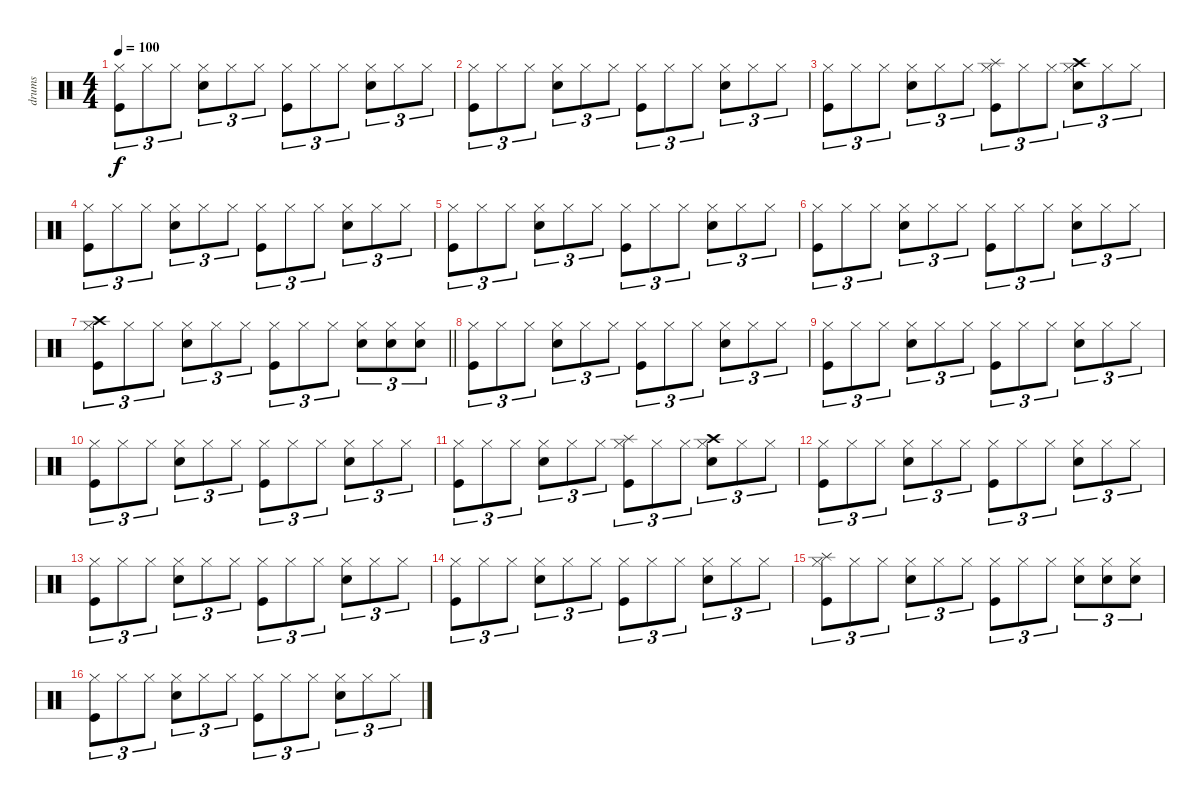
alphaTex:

\track ("drums" "drums") {instrument percussion}
\staff {score}
\articulation defaults
\ts (4 4)
\tempo 100
\clef neutral
\ks c
("Hi-Hat (closed)" "Kick (hit)").8{tu (3 2) dy f} "Hi-Hat (closed)".8{tu (3 2)} "Hi-Hat (closed)".8{tu (3 2)} ("Hi-Hat (closed)" "Snare (hit) 2").8{tu (3 2)} "Hi-Hat (closed)".8{tu (3 2)} "Hi-Hat (closed)".8{tu (3 2)} ("Hi-Hat (closed)" "Kick (hit)").8{tu (3 2)} "Hi-Hat (closed)".8{tu (3 2)} "Hi-Hat (closed)".8{tu (3 2)} ("Hi-Hat (closed)" "Snare (hit) 2").8{tu (3 2)} "Hi-Hat (closed)".8{tu (3 2)} "Hi-Hat (closed)".8{tu (3 2)} |
("Hi-Hat (closed)" "Kick (hit)").8{tu (3 2)} "Hi-Hat (closed)".8{tu (3 2)} "Hi-Hat (closed)".8{tu (3 2)} ("Hi-Hat (closed)" "Snare (hit) 2").8{tu (3 2)} "Hi-Hat (closed)".8{tu (3 2)} "Hi-Hat (closed)".8{tu (3 2)} ("Hi-Hat (closed)" "Kick (hit)").8{tu (3 2)} "Hi-Hat (closed)".8{tu (3 2)} "Hi-Hat (closed)".8{tu (3 2)} ("Hi-Hat (closed)" "Snare (hit) 2").8{tu (3 2)} "Hi-Hat (closed)".8{tu (3 2)} "Hi-Hat (closed)".8{tu (3 2)} |
("Hi-Hat (closed)" "Kick (hit)").8{tu (3 2)} "Hi-Hat (closed)".8{tu (3 2)} "Hi-Hat (closed)".8{tu (3 2)} ("Hi-Hat (closed)" "Snare (hit) 2").8{tu (3 2)} "Hi-Hat (closed)".8{tu (3 2)} "Hi-Hat (closed)".8{tu (3 2)} ("Hi-Hat (closed)" "Splash (hit)" "Kick (hit)").8{tu (3 2)} "Hi-Hat (closed)".8{tu (3 2)} "Hi-Hat (closed)".8{tu (3 2)} ("Hi-Hat (closed)" "Crash high (hit)" "Snare (hit) 2").8{tu (3 2)} "Hi-Hat (closed)".8{tu (3 2)} "Hi-Hat (closed)".8{tu (3 2)} |
("Hi-Hat (closed)" "Kick (hit)").8{tu (3 2)} "Hi-Hat (closed)".8{tu (3 2)} "Hi-Hat (closed)".8{tu (3 2)} ("Hi-Hat (closed)" "Snare (hit) 2").8{tu (3 2)} "Hi-Hat (closed)".8{tu (3 2)} "Hi-Hat (closed)".8{tu (3 2)} ("Hi-Hat (closed)" "Kick (hit)").8{tu (3 2)} "Hi-Hat (closed)".8{tu (3 2)} "Hi-Hat (closed)".8{tu (3 2)} ("Hi-Hat (closed)" "Snare (hit) 2").8{tu (3 2)} "Hi-Hat (closed)".8{tu (3 2)} "Hi-Hat (closed)".8{tu (3 2)} |
("Hi-Hat (closed)" "Kick (hit)").8{tu (3 2)} "Hi-Hat (closed)".8{tu (3 2)} "Hi-Hat (closed)".8{tu (3 2)} ("Hi-Hat (closed)" "Snare (hit) 2").8{tu (3 2)} "Hi-Hat (closed)".8{tu (3 2)} "Hi-Hat (closed)".8{tu (3 2)} ("Hi-Hat (closed)" "Kick (hit)").8{tu (3 2)} "Hi-Hat (closed)".8{tu (3 2)} "Hi-Hat (closed)".8{tu (3 2)} ("Hi-Hat (closed)" "Snare (hit) 2").8{tu (3 2)} "Hi-Hat (closed)".8{tu (3 2)} "Hi-Hat (closed)".8{tu (3 2)} |
("Hi-Hat (closed)" "Kick (hit)").8{tu (3 2)} "Hi-Hat (closed)".8{tu (3 2)} "Hi-Hat (closed)".8{tu (3 2)} ("Hi-Hat (closed)" "Snare (hit) 2").8{tu (3 2)} "Hi-Hat (closed)".8{tu (3 2)} "Hi-Hat (closed)".8{tu (3 2)} ("Hi-Hat (closed)" "Kick (hit)").8{tu (3 2)} "Hi-Hat (closed)".8{tu (3 2)} "Hi-Hat (closed)".8{tu (3 2)} ("Hi-Hat (closed)" "Snare (hit) 2").8{tu (3 2)} "Hi-Hat (closed)".8{tu (3 2)} "Hi-Hat (closed)".8{tu (3 2)} |
\barLineRight lightlight
("Hi-Hat (closed)" "Crash high (hit)" "Kick (hit)").8{tu (3 2)} "Hi-Hat (closed)".8{tu (3 2)} "Hi-Hat (closed)".8{tu (3 2)} ("Hi-Hat (closed)" "Snare (hit) 2").8{tu (3 2)} "Hi-Hat (closed)".8{tu (3 2)} "Hi-Hat (closed)".8{tu (3 2)} ("Hi-Hat (closed)" "Kick (hit)").8{tu (3 2)} "Hi-Hat (closed)".8{tu (3 2)} "Hi-Hat (closed)".8{tu (3 2)} ("Hi-Hat (closed)" "Snare (hit) 2").8{tu (3 2)} ("Hi-Hat (closed)" "Snare (hit) 2").8{tu (3 2)} ("Hi-Hat (closed)" "Snare (hit) 2").8{tu (3 2)} |
("Hi-Hat (closed)" "Kick (hit)").8{tu (3 2)} "Hi-Hat (closed)".8{tu (3 2)} "Hi-Hat (closed)".8{tu (3 2)} ("Hi-Hat (closed)" "Snare (hit) 2").8{tu (3 2)} "Hi-Hat (closed)".8{tu (3 2)} "Hi-Hat (closed)".8{tu (3 2)} ("Hi-Hat (closed)" "Kick (hit)").8{tu (3 2)} "Hi-Hat (closed)".8{tu (3 2)} "Hi-Hat (closed)".8{tu (3 2)} ("Hi-Hat (closed)" "Snare (hit) 2").8{tu (3 2)} "Hi-Hat (closed)".8{tu (3 2)} "Hi-Hat (closed)".8{tu (3 2)} |
("Hi-Hat (closed)" "Kick (hit)").8{tu (3 2)} "Hi-Hat (closed)".8{tu (3 2)} "Hi-Hat (closed)".8{tu (3 2)} ("Hi-Hat (closed)" "Snare (hit) 2").8{tu (3 2)} "Hi-Hat (closed)".8{tu (3 2)} "Hi-Hat (closed)".8{tu (3 2)} ("Hi-Hat (closed)" "Kick (hit)").8{tu (3 2)} "Hi-Hat (closed)".8{tu (3 2)} "Hi-Hat (closed)".8{tu (3 2)} ("Hi-Hat (closed)" "Snare (hit) 2").8{tu (3 2)} "Hi-Hat (closed)".8{tu (3 2)} "Hi-Hat (closed)".8{tu (3 2)} |
("Hi-Hat (closed)" "Kick (hit)").8{tu (3 2)} "Hi-Hat (closed)".8{tu (3 2)} "Hi-Hat (closed)".8{tu (3 2)} ("Hi-Hat (closed)" "Snare (hit) 2").8{tu (3 2)} "Hi-Hat (closed)".8{tu (3 2)} "Hi-Hat (closed)".8{tu (3 2)} ("Hi-Hat (closed)" "Kick (hit)").8{tu (3 2)} "Hi-Hat (closed)".8{tu (3 2)} "Hi-Hat (closed)".8{tu (3 2)} ("Hi-Hat (closed)" "Snare (hit) 2").8{tu (3 2)} "Hi-Hat (closed)".8{tu (3 2)} "Hi-Hat (closed)".8{tu (3 2)} |
("Hi-Hat (closed)" "Kick (hit)").8{tu (3 2)} "Hi-Hat (closed)".8{tu (3 2)} "Hi-Hat (closed)".8{tu (3 2)} ("Hi-Hat (closed)" "Snare (hit) 2").8{tu (3 2)} "Hi-Hat (closed)".8{tu (3 2)} "Hi-Hat (closed)".8{tu (3 2)} ("Hi-Hat (closed)" "Splash (hit)" "Kick (hit)").8{tu (3 2)} "Hi-Hat (closed)".8{tu (3 2)} "Hi-Hat (closed)".8{tu (3 2)} ("Hi-Hat (closed)" "Crash high (hit)" "Snare (hit) 2").8{tu (3 2)} "Hi-Hat (closed)".8{tu (3 2)} "Hi-Hat (closed)".8{tu (3 2)} |
("Hi-Hat (closed)" "Kick (hit)").8{tu (3 2)} "Hi-Hat (closed)".8{tu (3 2)} "Hi-Hat (closed)".8{tu (3 2)} ("Hi-Hat (closed)" "Snare (hit) 2").8{tu (3 2)} "Hi-Hat (closed)".8{tu (3 2)} "Hi-Hat (closed)".8{tu (3 2)} ("Hi-Hat (closed)" "Kick (hit)").8{tu (3 2)} "Hi-Hat (closed)".8{tu (3 2)} "Hi-Hat (closed)".8{tu (3 2)} ("Hi-Hat (closed)" "Snare (hit) 2").8{tu (3 2)} "Hi-Hat (closed)".8{tu (3 2)} "Hi-Hat (closed)".8{tu (3 2)} |
("Hi-Hat (closed)" "Kick (hit)").8{tu (3 2)} "Hi-Hat (closed)".8{tu (3 2)} "Hi-Hat (closed)".8{tu (3 2)} ("Hi-Hat (closed)" "Snare (hit) 2").8{tu (3 2)} "Hi-Hat (closed)".8{tu (3 2)} "Hi-Hat (closed)".8{tu (3 2)} ("Hi-Hat (closed)" "Kick (hit)").8{tu (3 2)} "Hi-Hat (closed)".8{tu (3 2)} "Hi-Hat (closed)".8{tu (3 2)} ("Hi-Hat (closed)" "Snare (hit) 2").8{tu (3 2)} "Hi-Hat (closed)".8{tu (3 2)} "Hi-Hat (closed)".8{tu (3 2)} |
("Hi-Hat (closed)" "Kick (hit)").8{tu (3 2)} "Hi-Hat (closed)".8{tu (3 2)} "Hi-Hat (closed)".8{tu (3 2)} ("Hi-Hat (closed)" "Snare (hit) 2").8{tu (3 2)} "Hi-Hat (closed)".8{tu (3 2)} "Hi-Hat (closed)".8{tu (3 2)} ("Hi-Hat (closed)" "Kick (hit)").8{tu (3 2)} "Hi-Hat (closed)".8{tu (3 2)} "Hi-Hat (closed)".8{tu (3 2)} ("Hi-Hat (closed)" "Snare (hit) 2").8{tu (3 2)} "Hi-Hat (closed)".8{tu (3 2)} "Hi-Hat (closed)".8{tu (3 2)} |
("Hi-Hat (closed)" "Splash (hit)" "Kick (hit)").8{tu (3 2)} "Hi-Hat (closed)".8{tu (3 2)} "Hi-Hat (closed)".8{tu (3 2)} ("Hi-Hat (closed)" "Snare (hit) 2").8{tu (3 2)} "Hi-Hat (closed)".8{tu (3 2)} "Hi-Hat (closed)".8{tu (3 2)} ("Hi-Hat (closed)" "Kick (hit)").8{tu (3 2)} "Hi-Hat (closed)".8{tu (3 2)} "Hi-Hat (closed)".8{tu (3 2)} ("Hi-Hat (closed)" "Snare (hit) 2").8{tu (3 2)} ("Hi-Hat (closed)" "Snare (hit) 2").8{tu (3 2)} ("Hi-Hat (closed)" "Snare (hit) 2").8{tu (3 2)} |
("Hi-Hat (closed)" "Kick (hit)").8{tu (3 2)} "Hi-Hat (closed)".8{tu (3 2)} "Hi-Hat (closed)".8{tu (3 2)} ("Hi-Hat (closed)" "Snare (hit) 2").8{tu (3 2)} "Hi-Hat (closed)".8{tu (3 2)} "Hi-Hat (closed)".8{tu (3 2)} ("Hi-Hat (closed)" "Kick (hit)").8{tu (3 2)} "Hi-Hat (closed)".8{tu (3 2)} "Hi-Hat (closed)".8{tu (3 2)} ("Hi-Hat (closed)" "Snare (hit) 2").8{tu (3 2)} "Hi-Hat (closed)".8{tu (3 2)} "Hi-Hat (closed)".8{tu (3 2)}
